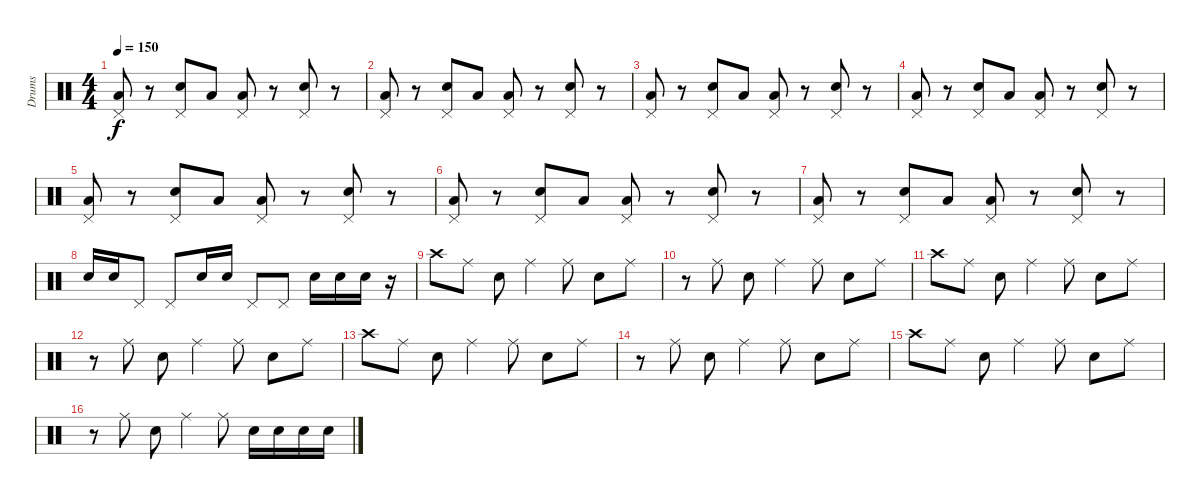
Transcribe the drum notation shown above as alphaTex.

\track ("Drums" "Drums") {instrument percussion}
\staff {score}
\articulation defaults
\ts (4 4)
\tempo 150
\clef neutral
\ks c
("Pedal Hi-Hat (hit)" "Low Tom (hit)").8{dy f} r.8 ("Pedal Hi-Hat (hit)" "Electric Snare (hit)").8 "Low Tom (hit)".8 ("Pedal Hi-Hat (hit)" "Low Tom (hit)").8 r.8 ("Pedal Hi-Hat (hit)" "Electric Snare (hit)").8 r.8 |
("Pedal Hi-Hat (hit)" "Low Tom (hit)").8 r.8 ("Pedal Hi-Hat (hit)" "Electric Snare (hit)").8 "Low Tom (hit)".8 ("Pedal Hi-Hat (hit)" "Low Tom (hit)").8 r.8 ("Pedal Hi-Hat (hit)" "Electric Snare (hit)").8 r.8 |
("Pedal Hi-Hat (hit)" "Low Tom (hit)").8 r.8 ("Pedal Hi-Hat (hit)" "Electric Snare (hit)").8 "Low Tom (hit)".8 ("Pedal Hi-Hat (hit)" "Low Tom (hit)").8 r.8 ("Pedal Hi-Hat (hit)" "Electric Snare (hit)").8 r.8 |
("Pedal Hi-Hat (hit)" "Low Tom (hit)").8 r.8 ("Pedal Hi-Hat (hit)" "Electric Snare (hit)").8 "Low Tom (hit)".8 ("Pedal Hi-Hat (hit)" "Low Tom (hit)").8 r.8 ("Pedal Hi-Hat (hit)" "Electric Snare (hit)").8 r.8 |
("Pedal Hi-Hat (hit)" "Low Tom (hit)").8 r.8 ("Pedal Hi-Hat (hit)" "Electric Snare (hit)").8 "Low Tom (hit)".8 ("Pedal Hi-Hat (hit)" "Low Tom (hit)").8 r.8 ("Pedal Hi-Hat (hit)" "Electric Snare (hit)").8 r.8 |
("Pedal Hi-Hat (hit)" "Low Tom (hit)").8 r.8 ("Pedal Hi-Hat (hit)" "Electric Snare (hit)").8 "Low Tom (hit)".8 ("Pedal Hi-Hat (hit)" "Low Tom (hit)").8 r.8 ("Pedal Hi-Hat (hit)" "Electric Snare (hit)").8 r.8 |
("Pedal Hi-Hat (hit)" "Low Tom (hit)").8 r.8 ("Pedal Hi-Hat (hit)" "Electric Snare (hit)").8 "Low Tom (hit)".8 ("Pedal Hi-Hat (hit)" "Low Tom (hit)").8 r.8 ("Pedal Hi-Hat (hit)" "Electric Snare (hit)").8 r.8 |
"Electric Snare (hit)".16 "Electric Snare (hit)".16 "Pedal Hi-Hat (hit)".8 "Pedal Hi-Hat (hit)".8 "Electric Snare (hit)".16 "Electric Snare (hit)".16 "Pedal Hi-Hat (hit)".8 "Pedal Hi-Hat (hit)".8 "Electric Snare (hit)".16 "Electric Snare (hit)".16 "Electric Snare (hit)".16 r.16 |
"Crash high (hit)".8 "Ride (middle)".8 "Electric Snare (hit)".8 "Ride (middle)".4 "Ride (middle)".8 "Electric Snare (hit)".8 "Ride (middle)".8 |
r.8 "Ride (middle)".8 "Electric Snare (hit)".8 "Ride (middle)".4 "Ride (middle)".8 "Electric Snare (hit)".8 "Ride (middle)".8 |
"Crash high (hit)".8 "Ride (middle)".8 "Electric Snare (hit)".8 "Ride (middle)".4 "Ride (middle)".8 "Electric Snare (hit)".8 "Ride (middle)".8 |
r.8 "Ride (middle)".8 "Electric Snare (hit)".8 "Ride (middle)".4 "Ride (middle)".8 "Electric Snare (hit)".8 "Ride (middle)".8 |
"Crash high (hit)".8 "Ride (middle)".8 "Electric Snare (hit)".8 "Ride (middle)".4 "Ride (middle)".8 "Electric Snare (hit)".8 "Ride (middle)".8 |
r.8 "Ride (middle)".8 "Electric Snare (hit)".8 "Ride (middle)".4 "Ride (middle)".8 "Electric Snare (hit)".8 "Ride (middle)".8 |
"Crash high (hit)".8 "Ride (middle)".8 "Electric Snare (hit)".8 "Ride (middle)".4 "Ride (middle)".8 "Electric Snare (hit)".8 "Ride (middle)".8 |
r.8 "Ride (middle)".8 "Electric Snare (hit)".8 "Ride (middle)".4 "Ride (middle)".8 "Electric Snare (hit)".16 "Electric Snare (hit)".16 "Electric Snare (hit)".16 "Electric Snare (hit)".16
